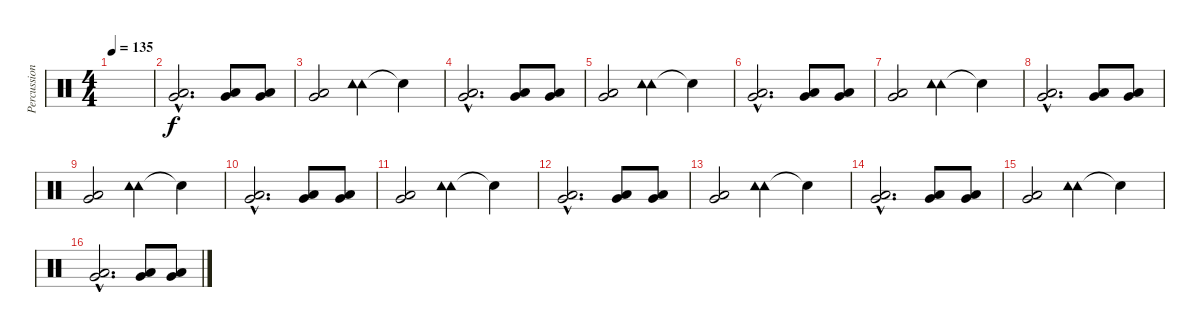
\track ("Percussion" "Percussion") {instrument percussion}
\staff {score}
\articulation defaults
\ts (4 4)
\tempo 135
\clef neutral
\ks c
|
("Very Low Tom (hit)"{hac} "Low Tom (hit)"{hac}).2{d} ("Very Low Tom (hit)" "Low Tom (hit)").8 ("Very Low Tom (hit)" "Low Tom (hit)").8 |
("Very Low Tom (hit)" "Low Tom (hit)").2 ("Tambourine (hit)" "Tambourine (hit)").4 "Snare (hit)"{t}.4 |
("Very Low Tom (hit)"{hac} "Low Tom (hit)"{hac}).2{d} ("Very Low Tom (hit)" "Low Tom (hit)").8 ("Very Low Tom (hit)" "Low Tom (hit)").8 |
("Very Low Tom (hit)" "Low Tom (hit)").2 ("Tambourine (hit)" "Tambourine (hit)").4 "Snare (hit)"{t}.4 |
("Very Low Tom (hit)"{hac} "Low Tom (hit)"{hac}).2{d} ("Very Low Tom (hit)" "Low Tom (hit)").8 ("Very Low Tom (hit)" "Low Tom (hit)").8 |
("Very Low Tom (hit)" "Low Tom (hit)").2 ("Tambourine (hit)" "Tambourine (hit)").4 "Snare (hit)"{t}.4 |
("Very Low Tom (hit)"{hac} "Low Tom (hit)"{hac}).2{d} ("Very Low Tom (hit)" "Low Tom (hit)").8 ("Very Low Tom (hit)" "Low Tom (hit)").8 |
("Very Low Tom (hit)" "Low Tom (hit)").2 ("Tambourine (hit)" "Tambourine (hit)").4 "Snare (hit)"{t}.4 |
("Very Low Tom (hit)"{hac} "Low Tom (hit)"{hac}).2{d} ("Very Low Tom (hit)" "Low Tom (hit)").8 ("Very Low Tom (hit)" "Low Tom (hit)").8 |
("Very Low Tom (hit)" "Low Tom (hit)").2 ("Tambourine (hit)" "Tambourine (hit)").4 "Snare (hit)"{t}.4 |
("Very Low Tom (hit)"{hac} "Low Tom (hit)"{hac}).2{d} ("Very Low Tom (hit)" "Low Tom (hit)").8 ("Very Low Tom (hit)" "Low Tom (hit)").8 |
("Very Low Tom (hit)" "Low Tom (hit)").2 ("Tambourine (hit)" "Tambourine (hit)").4 "Snare (hit)"{t}.4 |
("Very Low Tom (hit)"{hac} "Low Tom (hit)"{hac}).2{d} ("Very Low Tom (hit)" "Low Tom (hit)").8 ("Very Low Tom (hit)" "Low Tom (hit)").8 |
("Very Low Tom (hit)" "Low Tom (hit)").2 ("Tambourine (hit)" "Tambourine (hit)").4 "Snare (hit)"{t}.4 |
("Very Low Tom (hit)"{hac} "Low Tom (hit)"{hac}).2{d} ("Very Low Tom (hit)" "Low Tom (hit)").8 ("Very Low Tom (hit)" "Low Tom (hit)").8
